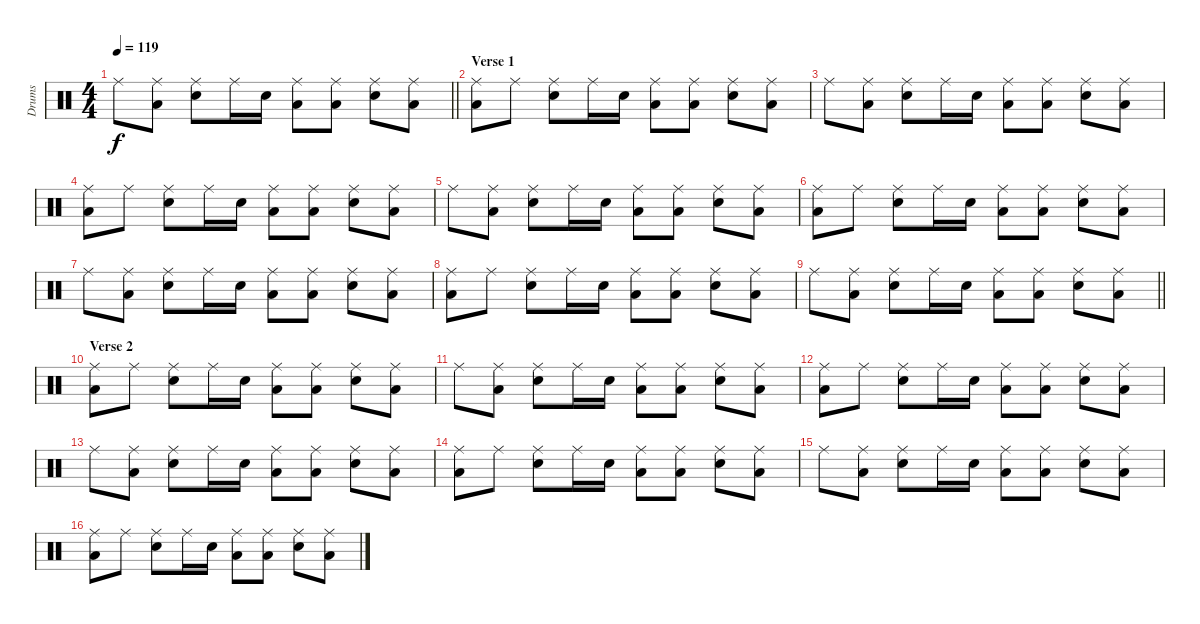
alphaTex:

\track ("Drums" "Drums") {instrument percussion}
\staff {score}
\articulation defaults
\ts (4 4)
\tempo 119
\clef neutral
\barLineRight lightlight
\ks c "Ride (middle)".8{dy f}
("Ride (middle)" "Low Floor Tom (hit)").8 ("Ride (middle)" "Electric Snare (hit)").8 "Ride (middle)".16 "Electric Snare (hit)".16 ("Ride (middle)" "Low Floor Tom (hit)").8 ("Ride (middle)" "Low Floor Tom (hit)").8 ("Ride (middle)" "Electric Snare (hit)").8 ("Ride (middle)" "Low Floor Tom (hit)").8 |
\section ("" "Verse 1")
("Ride (middle)" "Low Floor Tom (hit)").8 "Ride (middle)".8 ("Ride (middle)" "Electric Snare (hit)").8 "Ride (middle)".16 "Electric Snare (hit)".16 ("Ride (middle)" "Low Floor Tom (hit)").8 ("Ride (middle)" "Low Floor Tom (hit)").8 ("Ride (middle)" "Electric Snare (hit)").8 ("Ride (middle)" "Low Floor Tom (hit)").8 |
"Ride (middle)".8 ("Ride (middle)" "Low Floor Tom (hit)").8 ("Ride (middle)" "Electric Snare (hit)").8 "Ride (middle)".16 "Electric Snare (hit)".16 ("Ride (middle)" "Low Floor Tom (hit)").8 ("Ride (middle)" "Low Floor Tom (hit)").8 ("Ride (middle)" "Electric Snare (hit)").8 ("Ride (middle)" "Low Floor Tom (hit)").8 |
("Ride (middle)" "Low Floor Tom (hit)").8 "Ride (middle)".8 ("Ride (middle)" "Electric Snare (hit)").8 "Ride (middle)".16 "Electric Snare (hit)".16 ("Ride (middle)" "Low Floor Tom (hit)").8 ("Ride (middle)" "Low Floor Tom (hit)").8 ("Ride (middle)" "Electric Snare (hit)").8 ("Ride (middle)" "Low Floor Tom (hit)").8 |
"Ride (middle)".8 ("Ride (middle)" "Low Floor Tom (hit)").8 ("Ride (middle)" "Electric Snare (hit)").8 "Ride (middle)".16 "Electric Snare (hit)".16 ("Ride (middle)" "Low Floor Tom (hit)").8 ("Ride (middle)" "Low Floor Tom (hit)").8 ("Ride (middle)" "Electric Snare (hit)").8 ("Ride (middle)" "Low Floor Tom (hit)").8 |
("Ride (middle)" "Low Floor Tom (hit)").8 "Ride (middle)".8 ("Ride (middle)" "Electric Snare (hit)").8 "Ride (middle)".16 "Electric Snare (hit)".16 ("Ride (middle)" "Low Floor Tom (hit)").8 ("Ride (middle)" "Low Floor Tom (hit)").8 ("Ride (middle)" "Electric Snare (hit)").8 ("Ride (middle)" "Low Floor Tom (hit)").8 |
"Ride (middle)".8 ("Ride (middle)" "Low Floor Tom (hit)").8 ("Ride (middle)" "Electric Snare (hit)").8 "Ride (middle)".16 "Electric Snare (hit)".16 ("Ride (middle)" "Low Floor Tom (hit)").8 ("Ride (middle)" "Low Floor Tom (hit)").8 ("Ride (middle)" "Electric Snare (hit)").8 ("Ride (middle)" "Low Floor Tom (hit)").8 |
("Ride (middle)" "Low Floor Tom (hit)").8 "Ride (middle)".8 ("Ride (middle)" "Electric Snare (hit)").8 "Ride (middle)".16 "Electric Snare (hit)".16 ("Ride (middle)" "Low Floor Tom (hit)").8 ("Ride (middle)" "Low Floor Tom (hit)").8 ("Ride (middle)" "Electric Snare (hit)").8 ("Ride (middle)" "Low Floor Tom (hit)").8 |
\barLineRight lightlight "Ride (middle)".8
("Ride (middle)" "Low Floor Tom (hit)").8 ("Ride (middle)" "Electric Snare (hit)").8 "Ride (middle)".16 "Electric Snare (hit)".16 ("Ride (middle)" "Low Floor Tom (hit)").8 ("Ride (middle)" "Low Floor Tom (hit)").8 ("Ride (middle)" "Electric Snare (hit)").8 ("Ride (middle)" "Low Floor Tom (hit)").8 |
\section ("" "Verse 2")
("Ride (middle)" "Low Floor Tom (hit)").8 "Ride (middle)".8 ("Ride (middle)" "Electric Snare (hit)").8 "Ride (middle)".16 "Electric Snare (hit)".16 ("Ride (middle)" "Low Floor Tom (hit)").8 ("Ride (middle)" "Low Floor Tom (hit)").8 ("Ride (middle)" "Electric Snare (hit)").8 ("Ride (middle)" "Low Floor Tom (hit)").8 |
"Ride (middle)".8 ("Ride (middle)" "Low Floor Tom (hit)").8 ("Ride (middle)" "Electric Snare (hit)").8 "Ride (middle)".16 "Electric Snare (hit)".16 ("Ride (middle)" "Low Floor Tom (hit)").8 ("Ride (middle)" "Low Floor Tom (hit)").8 ("Ride (middle)" "Electric Snare (hit)").8 ("Ride (middle)" "Low Floor Tom (hit)").8 |
("Ride (middle)" "Low Floor Tom (hit)").8 "Ride (middle)".8 ("Ride (middle)" "Electric Snare (hit)").8 "Ride (middle)".16 "Electric Snare (hit)".16 ("Ride (middle)" "Low Floor Tom (hit)").8 ("Ride (middle)" "Low Floor Tom (hit)").8 ("Ride (middle)" "Electric Snare (hit)").8 ("Ride (middle)" "Low Floor Tom (hit)").8 |
"Ride (middle)".8 ("Ride (middle)" "Low Floor Tom (hit)").8 ("Ride (middle)" "Electric Snare (hit)").8 "Ride (middle)".16 "Electric Snare (hit)".16 ("Ride (middle)" "Low Floor Tom (hit)").8 ("Ride (middle)" "Low Floor Tom (hit)").8 ("Ride (middle)" "Electric Snare (hit)").8 ("Ride (middle)" "Low Floor Tom (hit)").8 |
("Ride (middle)" "Low Floor Tom (hit)").8 "Ride (middle)".8 ("Ride (middle)" "Electric Snare (hit)").8 "Ride (middle)".16 "Electric Snare (hit)".16 ("Ride (middle)" "Low Floor Tom (hit)").8 ("Ride (middle)" "Low Floor Tom (hit)").8 ("Ride (middle)" "Electric Snare (hit)").8 ("Ride (middle)" "Low Floor Tom (hit)").8 |
"Ride (middle)".8 ("Ride (middle)" "Low Floor Tom (hit)").8 ("Ride (middle)" "Electric Snare (hit)").8 "Ride (middle)".16 "Electric Snare (hit)".16 ("Ride (middle)" "Low Floor Tom (hit)").8 ("Ride (middle)" "Low Floor Tom (hit)").8 ("Ride (middle)" "Electric Snare (hit)").8 ("Ride (middle)" "Low Floor Tom (hit)").8 |
("Ride (middle)" "Low Floor Tom (hit)").8 "Ride (middle)".8 ("Ride (middle)" "Electric Snare (hit)").8 "Ride (middle)".16 "Electric Snare (hit)".16 ("Ride (middle)" "Low Floor Tom (hit)").8 ("Ride (middle)" "Low Floor Tom (hit)").8 ("Ride (middle)" "Electric Snare (hit)").8 ("Ride (middle)" "Low Floor Tom (hit)").8
